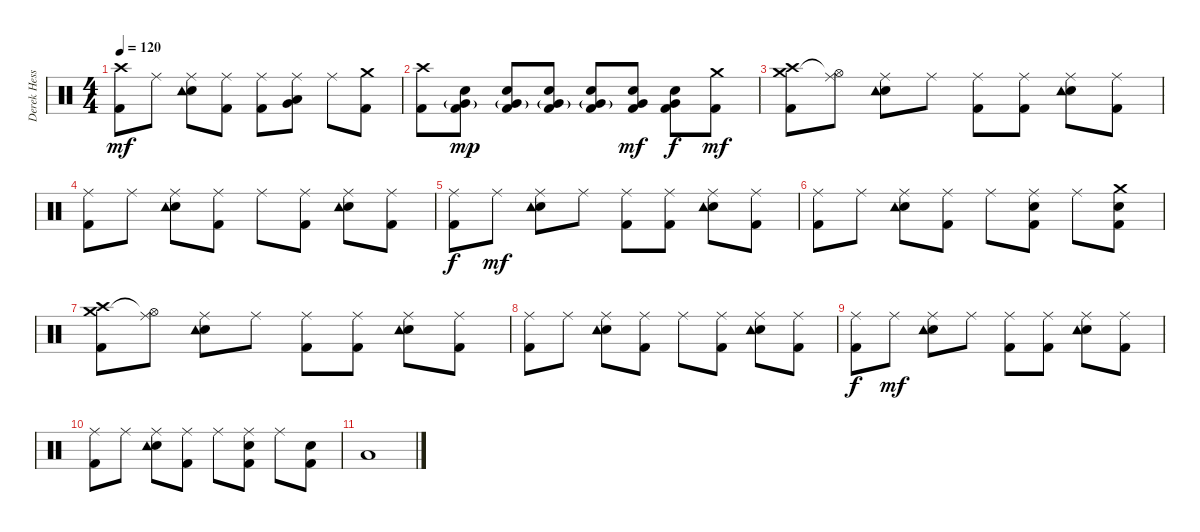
\track ("Derek Hess (Drums and Percussion)" "Derek Hess") {instrument percussion}
\staff {score}
\articulation defaults
\ts (4 4)
\tempo 120
\clef neutral
\ks c
("Crash high (hit)" "Kick (hit) 2").8{dy mf} "Ride (middle)".8 ("Ride (middle)" "Snare (hit) 2" "Tambourine (hit)").8 ("Ride (middle)" "Kick (hit) 2").8 ("Ride (middle)" "Kick (hit) 2").8 ("Ride (middle)" "Low Tom (hit)" "Very Low Tom (hit)").8 "Ride (middle)".8 ("Crash medium (hit)" "Kick (hit) 2").8 |
("Crash high (hit)" "Kick (hit) 2").8 ("Snare (hit) 2" "Very Low Tom (hit)"{g} "Kick (hit) 2").8{dy mp} ("Snare (hit) 2" "Very Low Tom (hit)"{g} "Kick (hit) 2").8 ("Snare (hit) 2" "Very Low Tom (hit)"{g} "Kick (hit) 2").8 ("Snare (hit) 2" "Very Low Tom (hit)"{g} "Kick (hit) 2").8 ("Snare (hit) 2" "Very Low Tom (hit)" "Kick (hit) 2").8{dy mf} ("Snare (hit) 2" "Very Low Tom (hit)" "Kick (hit) 2").8{dy f} ("Crash medium (hit)" "Kick (hit) 2").8{dy mf} |
("Crash high (hit)" "Crash medium (hit)" "Kick (hit) 2").8 ("Ride (middle)" "Hi-Hat (open)"{t}).8 ("Ride (middle)" "Snare (hit) 2" "Tambourine (hit)").8 "Ride (middle)".8 ("Ride (middle)" "Kick (hit) 2").8 ("Ride (middle)" "Kick (hit) 2").8 ("Ride (middle)" "Snare (hit) 2" "Tambourine (hit)").8 ("Ride (middle)" "Kick (hit) 2").8 |
("Ride (middle)" "Kick (hit) 2").8 "Ride (middle)".8 ("Ride (middle)" "Snare (hit) 2" "Tambourine (hit)").8 ("Ride (middle)" "Kick (hit) 2").8 "Ride (middle)".8 ("Ride (middle)" "Kick (hit) 2").8 ("Ride (middle)" "Snare (hit) 2" "Tambourine (hit)").8 ("Ride (middle)" "Kick (hit) 2").8 |
("Ride (middle)" "Kick (hit) 2").8{dy f} "Ride (middle)".8{dy mf} ("Ride (middle)" "Snare (hit) 2" "Tambourine (hit)").8 "Ride (middle)".8 ("Ride (middle)" "Kick (hit) 2").8 ("Ride (middle)" "Kick (hit) 2").8 ("Ride (middle)" "Snare (hit) 2" "Tambourine (hit)").8 ("Ride (middle)" "Kick (hit) 2").8 |
("Ride (middle)" "Kick (hit) 2").8 "Ride (middle)".8 ("Ride (middle)" "Snare (hit) 2" "Tambourine (hit)").8 ("Ride (middle)" "Kick (hit) 2").8 "Ride (middle)".8 ("Ride (middle)" "Snare (hit) 2" "Kick (hit) 2").8 "Ride (middle)".8 ("Crash medium (hit)" "Snare (hit) 2" "Kick (hit) 2").8 |
("Crash high (hit)" "Crash medium (hit)" "Kick (hit) 2").8 ("Ride (middle)" "Hi-Hat (open)"{t}).8 ("Ride (middle)" "Snare (hit) 2" "Tambourine (hit)").8 "Ride (middle)".8 ("Ride (middle)" "Kick (hit) 2").8 ("Ride (middle)" "Kick (hit) 2").8 ("Ride (middle)" "Snare (hit) 2" "Tambourine (hit)").8 ("Ride (middle)" "Kick (hit) 2").8 |
("Ride (middle)" "Kick (hit) 2").8 "Ride (middle)".8 ("Ride (middle)" "Snare (hit) 2" "Tambourine (hit)").8 ("Ride (middle)" "Kick (hit) 2").8 "Ride (middle)".8 ("Ride (middle)" "Kick (hit) 2").8 ("Ride (middle)" "Snare (hit) 2" "Tambourine (hit)").8 ("Ride (middle)" "Kick (hit) 2").8 |
("Ride (middle)" "Kick (hit) 2").8{dy f} "Ride (middle)".8{dy mf} ("Ride (middle)" "Snare (hit) 2" "Tambourine (hit)").8 "Ride (middle)".8 ("Ride (middle)" "Kick (hit) 2").8 ("Ride (middle)" "Kick (hit) 2").8 ("Ride (middle)" "Snare (hit) 2" "Tambourine (hit)").8 ("Ride (middle)" "Kick (hit) 2").8 |
("Ride (middle)" "Kick (hit) 2").8 "Ride (middle)".8 ("Ride (middle)" "Snare (hit) 2" "Tambourine (hit)").8 ("Ride (middle)" "Kick (hit) 2").8 "Ride (middle)".8 ("Ride (middle)" "Snare (hit) 2" "Kick (hit) 2").8 "Ride (middle)".8 ("Snare (hit) 2" "Kick (hit) 2").8 |
"Low Tom (hit)".1
